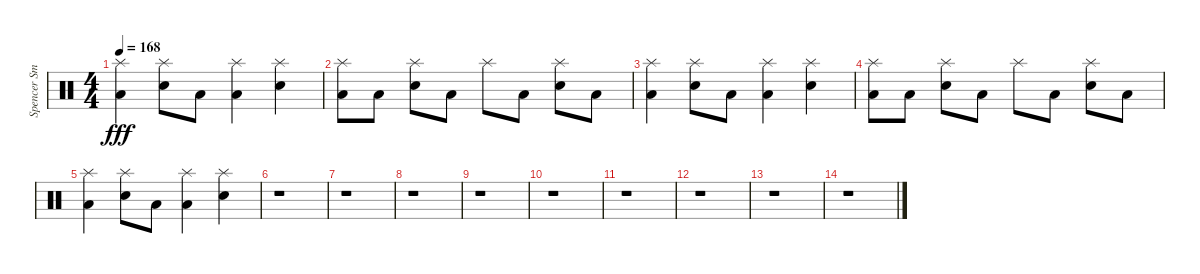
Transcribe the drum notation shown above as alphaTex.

\track ("Spencer Smith" "Spencer Sm") {instrument percussion}
\staff {score}
\articulation defaults
\ts (4 4)
\tempo 168
\clef neutral
\ks c
("Splash (hit)" "Low Floor Tom (hit)").4{dy fff} ("Splash (hit)" "Electric Snare (hit)").8 "Low Floor Tom (hit)".8 ("Splash (hit)" "Low Floor Tom (hit)").4 ("Splash (hit)" "Electric Snare (hit)").4 |
("Splash (hit)" "Low Floor Tom (hit)").8 "Low Floor Tom (hit)".8 ("Splash (hit)" "Electric Snare (hit)").8 "Low Floor Tom (hit)".8 "Splash (hit)".8 "Low Floor Tom (hit)".8 ("Splash (hit)" "Electric Snare (hit)").8 "Low Floor Tom (hit)".8 |
("Splash (hit)" "Low Floor Tom (hit)").4 ("Splash (hit)" "Electric Snare (hit)").8 "Low Floor Tom (hit)".8 ("Splash (hit)" "Low Floor Tom (hit)").4 ("Splash (hit)" "Electric Snare (hit)").4 |
("Splash (hit)" "Low Floor Tom (hit)").8 "Low Floor Tom (hit)".8 ("Splash (hit)" "Electric Snare (hit)").8 "Low Floor Tom (hit)".8 "Splash (hit)".8 "Low Floor Tom (hit)".8 ("Splash (hit)" "Electric Snare (hit)").8 "Low Floor Tom (hit)".8 |
("Splash (hit)" "Low Floor Tom (hit)").4 ("Splash (hit)" "Electric Snare (hit)").8 "Low Floor Tom (hit)".8 ("Splash (hit)" "Low Floor Tom (hit)").4 ("Splash (hit)" "Electric Snare (hit)").4 |
r.1 |
r.1 |
r.1 |
r.1 |
r.1 |
r.1 |
r.1 |
r.1 |
r.1
